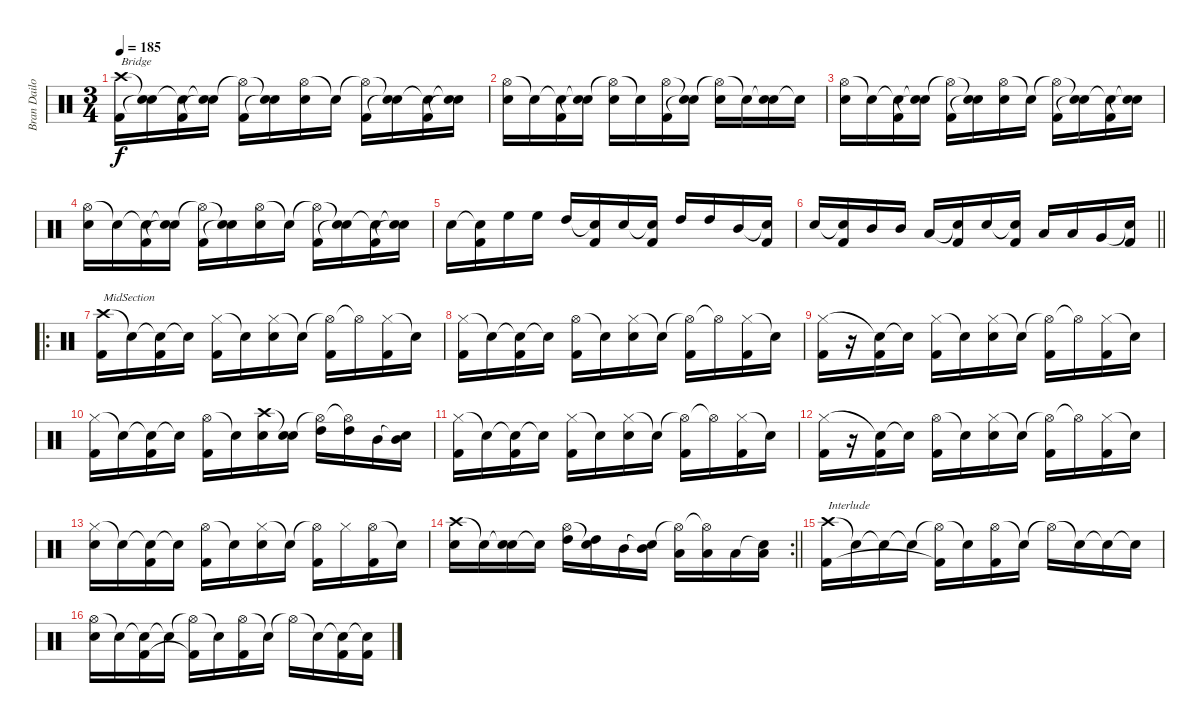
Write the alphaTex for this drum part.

\track ("Bran Dailor" "Bran Dailo") {instrument percussion}
\staff {score}
\articulation defaults
\ts (3 4)
\tempo 185
\clef neutral
\ks c
("Crash high (hit)" "Kick (hit) 2").16{txt "Bridge" dy f} ("Snare (hit)"{t} "Snare (hit)"{t}).16 ("Snare (hit)"{t} "Kick (hit) 2").16 ("Snare (hit)"{t} "Snare (hit)"{t}).16 ("Hi-Hat (open)"{t} "Kick (hit) 2").16 ("Snare (hit)"{t} "Snare (hit)"{t}).16 ("Hi-Hat (open)" "Electric Snare (hit)").16 "Snare (hit)"{t}.16 ("Hi-Hat (open)"{t} "Kick (hit) 2").16 ("Snare (hit)"{t} "Snare (hit)"{t}).16 ("Snare (hit)"{t} "Kick (hit) 2").16 ("Snare (hit)"{t} "Snare (hit)"{t}).16 |
("Hi-Hat (open)" "Electric Snare (hit)").16 "Snare (hit)"{t}.16 ("Snare (hit)"{t} "Kick (hit) 2").16 ("Snare (hit)"{t} "Snare (hit)"{t}).16 ("Hi-Hat (open)"{t} "Electric Snare (hit)").16 "Snare (hit)"{t}.16 ("Hi-Hat (open)" "Kick (hit) 2").16 ("Snare (hit)"{t} "Snare (hit)"{t}).16 ("Hi-Hat (open)"{t} "Electric Snare (hit)").16 "Snare (hit)"{t}.16 ("Snare (hit)"{t} "Electric Snare (hit)").16 "Snare (hit)"{t}.16 |
("Hi-Hat (open)" "Electric Snare (hit)").16 "Snare (hit)"{t}.16 ("Snare (hit)"{t} "Kick (hit) 2").16 ("Snare (hit)"{t} "Snare (hit)"{t}).16 ("Hi-Hat (open)"{t} "Kick (hit) 2").16 ("Snare (hit)"{t} "Snare (hit)"{t}).16 ("Hi-Hat (open)" "Electric Snare (hit)").16 "Snare (hit)"{t}.16 ("Hi-Hat (open)"{t} "Kick (hit) 2").16 ("Snare (hit)"{t} "Snare (hit)"{t}).16 ("Snare (hit)"{t} "Kick (hit) 2").16 ("Snare (hit)"{t} "Snare (hit)"{t}).16 |
("Hi-Hat (open)" "Electric Snare (hit)").16 "Snare (hit)"{t}.16 ("Snare (hit)"{t} "Kick (hit) 2").16 ("Snare (hit)"{t} "Snare (hit)"{t}).16 ("Hi-Hat (open)"{t} "Kick (hit) 2").16 ("Snare (hit)"{t} "Snare (hit)"{t}).16 ("Hi-Hat (open)" "Electric Snare (hit)").16 "Snare (hit)"{t}.16 ("Hi-Hat (open)"{t} "Kick (hit) 2").16 ("Snare (hit)"{t} "Snare (hit)"{t}).16 ("Snare (hit)"{t} "Kick (hit) 2").16 ("Snare (hit)"{t} "Snare (hit)"{t}).16 |
"Electric Snare (hit)".16 ("Snare (hit)"{t} "Kick (hit) 2").16 "High Floor Tom (hit)".16 "High Floor Tom (hit)".16 "High Tom (hit)".16 ("Snare (hit)"{t} "Kick (hit) 2").16 "Electric Snare (hit)".16 ("Snare (hit)"{t} "Kick (hit) 2").16 "High Tom (hit)".16 "High Tom (hit)".16 "Mid Tom (hit)".16 ("Snare (hit)"{t} "Kick (hit) 2").16 |
\barLineRight lightlight "Electric Snare (hit)".16
("Snare (hit)"{t} "Kick (hit) 2").16 "Mid Tom (hit)".16 "Mid Tom (hit)".16 "Low Tom (hit)".16 ("Snare (hit)"{t} "Kick (hit) 2").16 "Electric Snare (hit)".16 ("Snare (hit)"{t} "Kick (hit) 2").16 "Low Tom (hit)".16 "Low Tom (hit)".16 "Very Low Tom (hit)".16 ("Snare (hit)"{t} "Kick (hit) 2").16 |
\ro
("Crash high (hit)" "Kick (hit) 2").16{txt "MidSection"} "Snare (hit)"{t}.16 ("Snare (hit)"{t} "Kick (hit) 2").16 "Snare (hit)"{t}.16 ("Hi-Hat (closed)" "Kick (hit) 2").16 "Snare (hit)"{t}.16 ("Hi-Hat (closed)" "Electric Snare (hit)").16 "Snare (hit)"{t}.16 ("Hi-Hat (open)"{t} "Kick (hit) 2").16 "Hi-Hat (open)"{t}.16 ("Hi-Hat (closed)" "Kick (hit) 2").16 "Snare (hit)"{t}.16 |
("Hi-Hat (closed)" "Kick (hit) 2").16 "Snare (hit)"{t}.16 ("Snare (hit)"{t} "Kick (hit) 2").16 "Snare (hit)"{t}.16 ("Hi-Hat (open)" "Kick (hit) 2").16 "Snare (hit)"{t}.16 ("Hi-Hat (closed)" "Electric Snare (hit)").16 "Snare (hit)"{t}.16 ("Hi-Hat (open)"{t} "Kick (hit) 2").16 "Hi-Hat (open)"{t}.16 ("Hi-Hat (closed)" "Kick (hit) 2").16 "Snare (hit)"{t}.16 |
("Hi-Hat (closed)" "Kick (hit) 2").16 r.16 ("Snare (hit)"{t} "Kick (hit) 2").16 "Snare (hit)"{t}.16 ("Hi-Hat (closed)" "Kick (hit) 2").16 "Snare (hit)"{t}.16 ("Hi-Hat (closed)" "Electric Snare (hit)").16 "Snare (hit)"{t}.16 ("Hi-Hat (open)"{t} "Kick (hit) 2").16 "Hi-Hat (open)"{t}.16 ("Hi-Hat (closed)" "Kick (hit) 2").16 "Snare (hit)"{t}.16 |
("Hi-Hat (closed)" "Kick (hit) 2").16 "Snare (hit)"{t}.16 ("Snare (hit)"{t} "Kick (hit) 2").16 "Snare (hit)"{t}.16 ("Hi-Hat (open)" "Kick (hit) 2").16 "Snare (hit)"{t}.16 ("Crash high (hit)" "Electric Snare (hit)").16 ("Snare (hit)"{t} "Electric Snare (hit)").16 ("Hi-Hat (open)"{t} "High Tom (hit)").16 ("Hi-Hat (open)"{t} "High Tom (hit)").16 "Mid Tom (hit)".16 ("Snare (hit)"{t} "Mid Tom (hit)").16 |
("Hi-Hat (closed)" "Kick (hit) 2").16 "Snare (hit)"{t}.16 ("Snare (hit)"{t} "Kick (hit) 2").16 "Snare (hit)"{t}.16 ("Hi-Hat (closed)" "Kick (hit) 2").16 "Snare (hit)"{t}.16 ("Hi-Hat (closed)" "Electric Snare (hit)").16 "Snare (hit)"{t}.16 ("Hi-Hat (open)"{t} "Kick (hit) 2").16 "Hi-Hat (open)"{t}.16 ("Hi-Hat (closed)" "Kick (hit) 2").16 "Snare (hit)"{t}.16 |
("Hi-Hat (closed)" "Kick (hit) 2").16 r.16 ("Snare (hit)"{t} "Kick (hit) 2").16 "Snare (hit)"{t}.16 ("Hi-Hat (open)" "Kick (hit) 2").16 "Snare (hit)"{t}.16 ("Hi-Hat (closed)" "Electric Snare (hit)").16 "Snare (hit)"{t}.16 ("Hi-Hat (open)"{t} "Kick (hit) 2").16 "Hi-Hat (open)"{t}.16 ("Hi-Hat (closed)" "Kick (hit) 2").16 "Snare (hit)"{t}.16 |
("Hi-Hat (closed)" "Electric Snare (hit)").16 "Snare (hit)"{t}.16 ("Snare (hit)"{t} "Kick (hit) 2").16 "Snare (hit)"{t}.16 ("Hi-Hat (open)" "Kick (hit) 2").16 "Snare (hit)"{t}.16 ("Hi-Hat (closed)" "Electric Snare (hit)").16 "Snare (hit)"{t}.16 ("Hi-Hat (open)"{t} "Kick (hit) 2").16 "Hi-Hat (closed)".16 ("Hi-Hat (open)" "Kick (hit) 2").16 "Snare (hit)"{t}.16 |
\rc 2
\barLineRight lightlight
("Crash high (hit)" "Electric Snare (hit)").16 "Snare (hit)"{t}.16 ("Snare (hit)"{t} "Electric Snare (hit)").16 "Snare (hit)"{t}.16 ("Hi-Hat (open)" "High Tom (hit)").16 ("Snare (hit)"{t} "High Tom (hit)").16 "Mid Tom (hit)".16 ("Snare (hit)"{t} "Mid Tom (hit)").16 ("Hi-Hat (open)"{t} "Low Tom (hit)").16 ("Hi-Hat (open)"{t} "Low Tom (hit)").16 "Low Tom (hit)".16 ("Snare (hit)"{t} "Low Tom (hit)").16 |
("Crash high (hit)" "Kick (hit) 2").16{txt "Interlude"} "Snare (hit)"{t}.16 "Snare (hit)"{t}.16 "Snare (hit)"{t}.16 ("Hi-Hat (open)"{t} "Kick (hit) 2"{t}).16 "Snare (hit)"{t}.16 ("Hi-Hat (open)" "Kick (hit) 2").16 "Snare (hit)"{t}.16 "Hi-Hat (open)"{t}.16 "Snare (hit)"{t}.16 "Snare (hit)"{t}.16 "Snare (hit)"{t}.16 |
("Hi-Hat (open)" "Electric Snare (hit)").16 "Snare (hit)"{t}.16 ("Snare (hit)"{t} "Kick (hit) 2").16 "Snare (hit)"{t}.16 ("Hi-Hat (open)"{t} "Kick (hit) 2"{t}).16 "Snare (hit)"{t}.16 ("Hi-Hat (open)" "Kick (hit) 2").16 "Snare (hit)"{t}.16 "Hi-Hat (open)"{t}.16 "Snare (hit)"{t}.16 ("Snare (hit)"{t} "Kick (hit) 2").16 ("Snare (hit)"{t} "Kick (hit) 2").16
